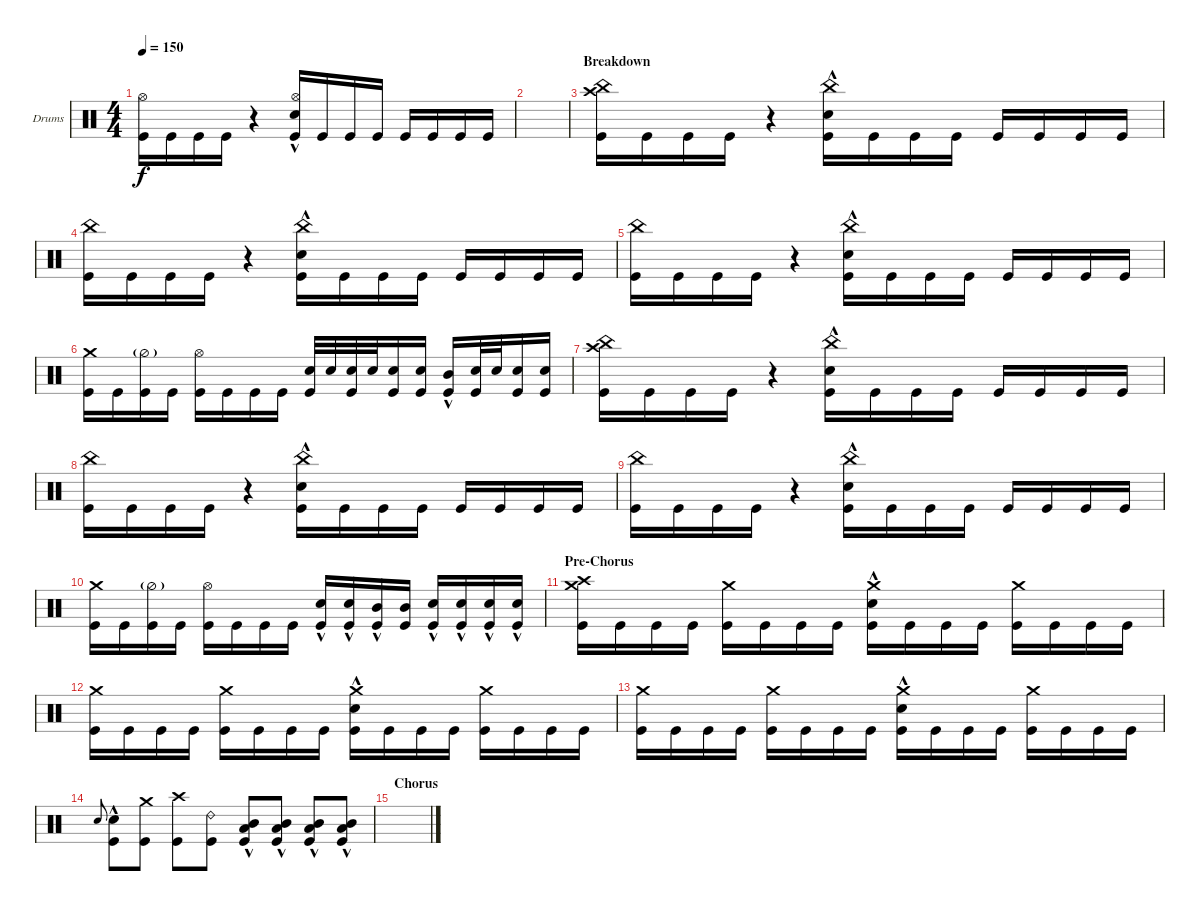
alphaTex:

\bracketExtendMode groupsimilarinstruments
\firstSystemTrackNameOrientation horizontal
\otherSystemsTrackNameOrientation horizontal
\track ("Drumkit" "Drums") {instrument percussion}
\staff {score}
\articulation defaults
\ts (4 4)
\tempo 150
\clef neutral
\ks aminor
("Kick (hit)" "Hi-Hat (open)").16{dy f} "Kick (hit)".16 "Kick (hit)".16 "Kick (hit)".16 r.4 ("Kick (hit)" "Snare (hit) 2"{hac} "Hi-Hat (open)").16 "Kick (hit)".16 "Kick (hit)".16 "Kick (hit)".16 "Kick (hit)".16 "Kick (hit)".16 "Kick (hit)".16 "Kick (hit)".16 |
|
\section ("" "Breakdown")
("Kick (hit)" "Crash high (hit)" "China (hit)").16 "Kick (hit)".16 "Kick (hit)".16 "Kick (hit)".16 r.4 ("Kick (hit)" "Snare (hit) 2"{hac} "China (hit)").16 "Kick (hit)".16 "Kick (hit)".16 "Kick (hit)".16 "Kick (hit)".16 "Kick (hit)".16 "Kick (hit)".16 "Kick (hit)".16 |
("Kick (hit)" "China (hit)").16 "Kick (hit)".16 "Kick (hit)".16 "Kick (hit)".16 r.4 ("Kick (hit)" "Snare (hit) 2"{hac} "China (hit)").16 "Kick (hit)".16 "Kick (hit)".16 "Kick (hit)".16 "Kick (hit)".16 "Kick (hit)".16 "Kick (hit)".16 "Kick (hit)".16 |
("Kick (hit)" "China (hit)").16 "Kick (hit)".16 "Kick (hit)".16 "Kick (hit)".16 r.4 ("Kick (hit)" "Snare (hit) 2"{hac} "China (hit)").16 "Kick (hit)".16 "Kick (hit)".16 "Kick (hit)".16 "Kick (hit)".16 "Kick (hit)".16 "Kick (hit)".16 "Kick (hit)".16 |
("Kick (hit)" "Crash medium (hit)").16 "Kick (hit)".16 ("Kick (hit)" "Hi-Hat (half)"{g}).16 "Kick (hit)".16 ("Kick (hit)" "Hi-Hat (open)").16 "Kick (hit)".16 "Kick (hit)".16 "Kick (hit)".16 ("Kick (hit)" "Snare (hit) 2").32 "Snare (hit) 2".32 ("Kick (hit)" "Snare (hit) 2").32 "Snare (hit) 2".32 ("Kick (hit)" "Snare (hit) 2").16 ("Kick (hit)" "Snare (hit) 2").16 ("Kick (hit)" "Mid Tom (hit)"{hac}).16 ("Kick (hit)" "Snare (hit) 2").32 "Snare (hit) 2".32 ("Kick (hit)" "Snare (hit) 2").16 ("Kick (hit)" "Snare (hit) 2").16 |
("Kick (hit)" "Crash high (hit)" "China (hit)").16 "Kick (hit)".16 "Kick (hit)".16 "Kick (hit)".16 r.4 ("Kick (hit)" "Snare (hit) 2"{hac} "China (hit)").16 "Kick (hit)".16 "Kick (hit)".16 "Kick (hit)".16 "Kick (hit)".16 "Kick (hit)".16 "Kick (hit)".16 "Kick (hit)".16 |
("Kick (hit)" "China (hit)").16 "Kick (hit)".16 "Kick (hit)".16 "Kick (hit)".16 r.4 ("Kick (hit)" "Snare (hit) 2"{hac} "China (hit)").16 "Kick (hit)".16 "Kick (hit)".16 "Kick (hit)".16 "Kick (hit)".16 "Kick (hit)".16 "Kick (hit)".16 "Kick (hit)".16 |
("Kick (hit)" "China (hit)").16 "Kick (hit)".16 "Kick (hit)".16 "Kick (hit)".16 r.4 ("Kick (hit)" "Snare (hit) 2"{hac} "China (hit)").16 "Kick (hit)".16 "Kick (hit)".16 "Kick (hit)".16 "Kick (hit)".16 "Kick (hit)".16 "Kick (hit)".16 "Kick (hit)".16 |
("Kick (hit)" "Crash medium (hit)").16 "Kick (hit)".16 ("Kick (hit)" "Hi-Hat (half)"{g}).16 "Kick (hit)".16 ("Kick (hit)" "Hi-Hat (open)").16 "Kick (hit)".16 "Kick (hit)".16 "Kick (hit)".16 ("Kick (hit)" "Snare (hit) 2"{hac}).16 ("Kick (hit)" "Snare (hit) 2"{hac}).16 ("Kick (hit)" "Mid Tom (hit)"{hac}).16 ("Kick (hit)" "Mid Tom (hit)").16 ("Kick (hit)" "Snare (hit) 2"{hac}).16 ("Kick (hit)" "Snare (hit) 2"{hac}).16 ("Kick (hit)" "Snare (hit) 2"{hac}).16 ("Kick (hit)" "Snare (hit) 2"{hac}).16 |
\section ("" "Pre-Chorus")
("Kick (hit)" "Crash medium (hit)" "Crash high (hit)").16 "Kick (hit)".16 "Kick (hit)".16 "Kick (hit)".16 ("Kick (hit)" "Crash medium (hit)").16 "Kick (hit)".16 "Kick (hit)".16 "Kick (hit)".16 ("Kick (hit)" "Crash medium (hit)" "Snare (hit) 2"{hac}).16 "Kick (hit)".16 "Kick (hit)".16 "Kick (hit)".16 ("Kick (hit)" "Crash medium (hit)").16 "Kick (hit)".16 "Kick (hit)".16 "Kick (hit)".16 |
("Kick (hit)" "Crash medium (hit)").16 "Kick (hit)".16 "Kick (hit)".16 "Kick (hit)".16 ("Kick (hit)" "Crash medium (hit)").16 "Kick (hit)".16 "Kick (hit)".16 "Kick (hit)".16 ("Kick (hit)" "Crash medium (hit)" "Snare (hit) 2"{hac}).16 "Kick (hit)".16 "Kick (hit)".16 "Kick (hit)".16 ("Kick (hit)" "Crash medium (hit)").16 "Kick (hit)".16 "Kick (hit)".16 "Kick (hit)".16 |
("Kick (hit)" "Crash medium (hit)").16 "Kick (hit)".16 "Kick (hit)".16 "Kick (hit)".16 ("Kick (hit)" "Crash medium (hit)").16 "Kick (hit)".16 "Kick (hit)".16 "Kick (hit)".16 ("Kick (hit)" "Crash medium (hit)" "Snare (hit) 2"{hac}).16 "Kick (hit)".16 "Kick (hit)".16 "Kick (hit)".16 ("Kick (hit)" "Crash medium (hit)").16 "Kick (hit)".16 "Kick (hit)".16 "Kick (hit)".16 |
"Snare (hit) 2".8{gr onbeat} ("Kick (hit)" "Snare (hit) 2"{hac}).8 ("Kick (hit)" "Crash medium (hit)").8 ("Kick (hit)" "Crash high (hit)").8 ("Kick (hit)" "Ride (bell) 2").8 ("Kick (hit)" "Low Tom (hit)"{hac} "Mid Tom (hit)"{hac}).8 ("Kick (hit)" "Low Tom (hit)"{hac} "Mid Tom (hit)"{hac}).8 ("Kick (hit)" "Low Tom (hit)"{hac} "Mid Tom (hit)"{hac}).8 ("Kick (hit)" "Low Tom (hit)"{hac} "Mid Tom (hit)"{hac}).8 |
\section ("" "Chorus")
